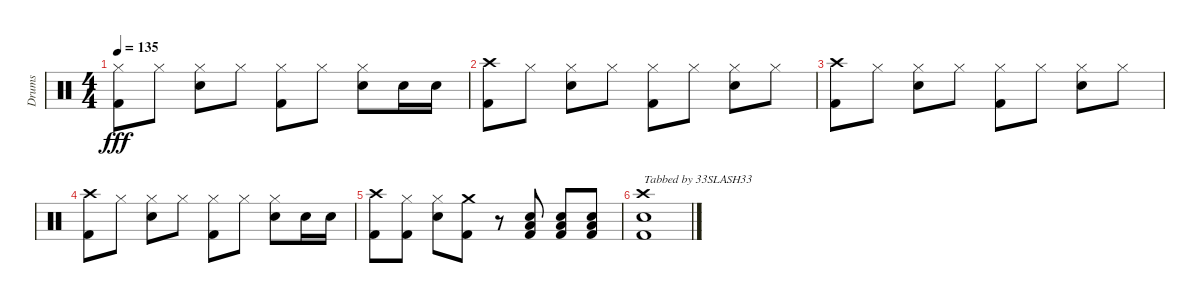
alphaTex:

\track ("Drums" "Drums") {instrument percussion}
\staff {score}
\articulation defaults
\ts (4 4)
\tempo 135
\clef neutral
\ks c
("Hi-Hat (closed)" "Kick (hit) 2").8{dy fff} "Hi-Hat (closed)".8 ("Hi-Hat (closed)" "Snare (hit) 2").8 "Hi-Hat (closed)".8 ("Hi-Hat (closed)" "Kick (hit) 2").8 "Hi-Hat (closed)".8 ("Hi-Hat (closed)" "Snare (hit) 2").8 "Snare (hit) 2".16 "Snare (hit) 2".16 |
("Crash high (hit)" "Kick (hit) 2").8 "Hi-Hat (closed)".8 ("Hi-Hat (closed)" "Snare (hit) 2").8 "Hi-Hat (closed)".8 ("Hi-Hat (closed)" "Kick (hit) 2").8 "Hi-Hat (closed)".8 ("Hi-Hat (closed)" "Snare (hit) 2").8 "Hi-Hat (closed)".8 |
("Crash high (hit)" "Kick (hit) 2").8 "Hi-Hat (closed)".8 ("Hi-Hat (closed)" "Snare (hit) 2").8 "Hi-Hat (closed)".8 ("Hi-Hat (closed)" "Kick (hit) 2").8 "Hi-Hat (closed)".8 ("Hi-Hat (closed)" "Snare (hit) 2").8 "Hi-Hat (closed)".8 |
("Crash high (hit)" "Kick (hit) 2").8 "Hi-Hat (closed)".8 ("Hi-Hat (closed)" "Snare (hit) 2").8 "Hi-Hat (closed)".8 ("Hi-Hat (closed)" "Kick (hit) 2").8 "Hi-Hat (closed)".8 ("Hi-Hat (closed)" "Snare (hit) 2").8 "Snare (hit) 2".16 "Snare (hit) 2".16 |
("Crash high (hit)" "Kick (hit) 2").8 ("Hi-Hat (closed)" "Kick (hit) 2").8 ("Hi-Hat (closed)" "Snare (hit) 2").8 ("Crash medium (hit)" "Kick (hit) 2").8 r.8 ("Snare (hit) 2" "Low Floor Tom (hit)" "Kick (hit) 2").8 ("Snare (hit) 2" "Low Floor Tom (hit)" "Kick (hit) 2").8 ("Snare (hit) 2" "Low Floor Tom (hit)" "Kick (hit) 2").8 |
("Crash high (hit)" "Snare (hit) 2" "Kick (hit) 2").1{txt "Tabbed by 33SLASH33"}
